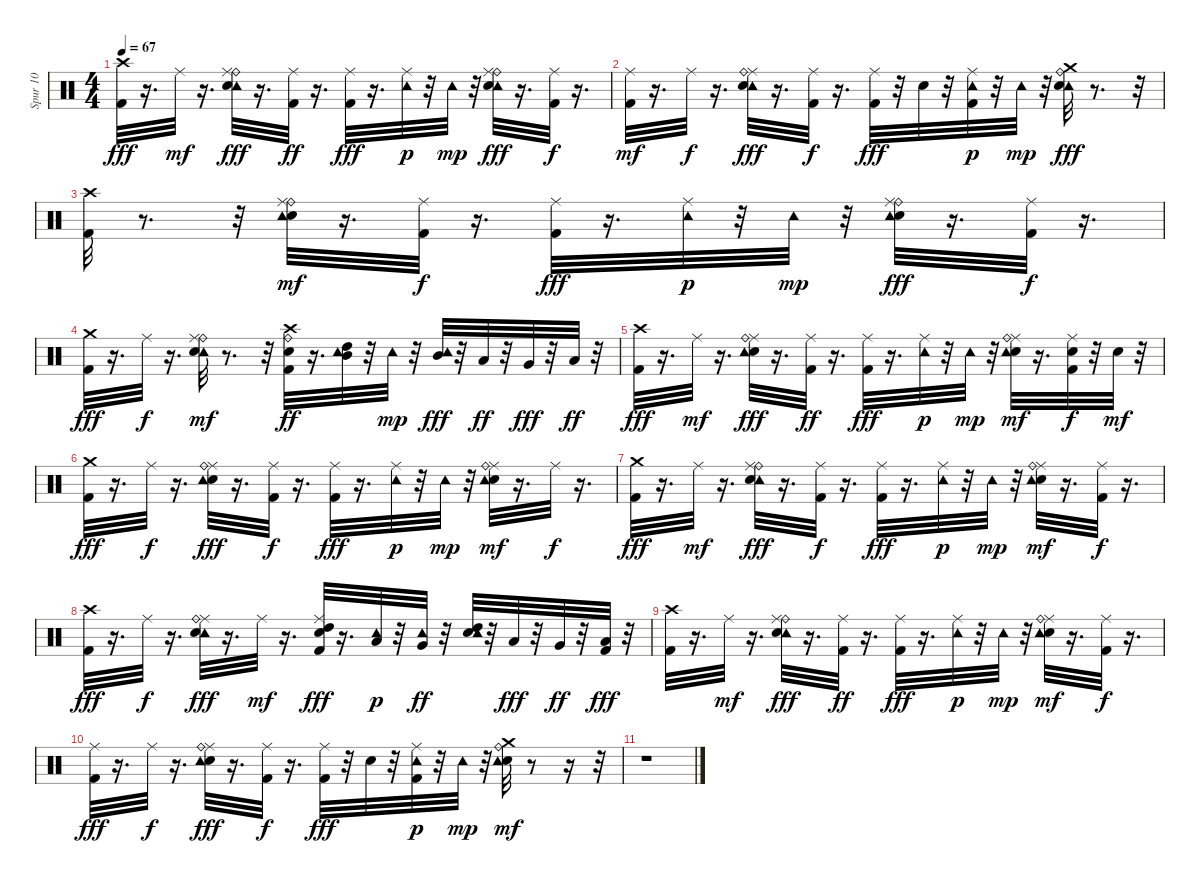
\track ("Spur 10" "Spur 10") {instrument percussion}
\staff {score}
\articulation defaults
\ts (4 4)
\tempo 67
\clef neutral
\ks c
("Crash high (hit)" "Kick (hit) 2").32{dy fff} r.16{d} "Ride (middle)".32{dy mf} r.16{d} ("Ride (bell)" "Tambourine (hit)" "Ride (middle)" "Snare (hit) 2").32{dy fff} r.16{d} ("Kick (hit) 2" "Ride (middle)").32{dy ff} r.16{d} ("Kick (hit) 2" "Ride (middle)").32{dy fff} r.16{d} ("Ride (middle)" "Tambourine (hit)").32{dy p} r.32 "Tambourine (hit)".32{dy mp} r.32 ("Tambourine (hit)" "Ride (bell)" "Ride (middle)" "Snare (hit) 2").32{dy fff} r.16{d} ("Kick (hit) 2" "Ride (middle)").32{dy f} r.16{d} |
("Kick (hit) 2" "Ride (middle)").32{dy mf} r.16{d} "Ride (middle)".32{dy f} r.16{d} ("Ride (middle)" "Ride (bell)" "Tambourine (hit)" "Snare (hit) 2").32{dy fff} r.16{d} ("Ride (middle)" "Kick (hit) 2").32{dy f} r.16{d} ("Ride (middle)" "Kick (hit) 2").32{dy fff} r.32 "Snare (hit) 2".32 r.32 ("Kick (hit) 2" "Ride (middle)" "Tambourine (hit)").32{dy p} r.32 "Tambourine (hit)".32{dy mp} r.32 ("Crash medium (hit)" "Tambourine (hit)" "Ride (bell)" "Snare (hit) 2").32{dy fff} r.8{d} r.32 |
("Kick (hit) 2" "Crash high (hit)").32 r.8{d} r.32 ("Snare (hit) 2" "Ride (bell)" "Ride (middle)" "Tambourine (hit)").32{dy mf} r.16{d} ("Ride (middle)" "Kick (hit) 2").32{dy f} r.16{d} ("Ride (middle)" "Kick (hit) 2").32{dy fff} r.16{d} ("Tambourine (hit)" "Ride (middle)").32{dy p} r.32 "Tambourine (hit)".32{dy mp} r.32 ("Ride (bell)" "Snare (hit) 2" "Tambourine (hit)" "Ride (middle)").32{dy fff} r.16{d} ("Kick (hit) 2" "Ride (middle)").32{dy f} r.16{d} |
("Kick (hit) 2" "Crash medium (hit)").32{dy fff} r.16{d} "Ride (middle)".32{dy f} r.16{d} ("Tambourine (hit)" "Ride (bell)" "Snare (hit) 2" "Ride (middle)").32{dy mf} r.8{d} r.32 ("Kick (hit) 2" "Snare (hit) 2" "Crash high (hit)" "Ride (bell)").32{dy ff} r.16{d} ("Mid Tom (hit)" "Tambourine (hit)" "High Tom (hit)").32 r.32 "Tambourine (hit)".32{dy mp} r.32 ("Tambourine (hit)" "Mid Tom (hit)").32{dy fff} r.32 "Low Tom (hit)".32{dy ff} r.32 "Very Low Tom (hit)".32{dy fff} r.32 "Low Floor Tom (hit)".32{dy ff} r.32 |
("Crash high (hit)" "Kick (hit) 2").32{dy fff} r.16{d} "Ride (middle)".32{dy mf} r.16{d} ("Snare (hit) 2" "Ride (middle)" "Ride (bell)" "Tambourine (hit)").32{dy fff} r.16{d} ("Ride (middle)" "Kick (hit) 2").32{dy ff} r.16{d} ("Ride (middle)" "Kick (hit) 2").32{dy fff} r.16{d} ("Ride (middle)" "Tambourine (hit)").32{dy p} r.32 "Tambourine (hit)".32{dy mp} r.32 ("Snare (hit) 2" "Ride (middle)" "Tambourine (hit)" "Ride (bell)").32{dy mf} r.16{d} ("Snare (hit) 2" "Kick (hit) 2" "Ride (middle)").32{dy f} r.32 "Snare (hit) 2".32{dy mf} r.32 |
("Crash medium (hit)" "Kick (hit) 2").32{dy fff} r.16{d} "Ride (middle)".32{dy f} r.16{d} ("Snare (hit) 2" "Ride (middle)" "Tambourine (hit)" "Ride (bell)").32{dy fff} r.16{d} ("Ride (middle)" "Kick (hit) 2").32{dy f} r.16{d} ("Kick (hit) 2" "Ride (middle)").32{dy fff} r.16{d} ("Ride (middle)" "Tambourine (hit)").32{dy p} r.32 "Tambourine (hit)".32{dy mp} r.32 ("Snare (hit) 2" "Ride (middle)" "Tambourine (hit)" "Ride (bell)").32{dy mf} r.16{d} "Ride (middle)".32{dy f} r.16{d} |
("Crash medium (hit)" "Kick (hit) 2").32{dy fff} r.16{d} "Ride (middle)".32{dy mf} r.16{d} ("Tambourine (hit)" "Ride (bell)" "Ride (middle)" "Snare (hit) 2").32{dy fff} r.16{d} ("Kick (hit) 2" "Ride (middle)").32{dy f} r.16{d} ("Ride (middle)" "Kick (hit) 2").32{dy fff} r.16{d} ("Ride (middle)" "Tambourine (hit)").32{dy p} r.32 "Tambourine (hit)".32{dy mp} r.32 ("Snare (hit) 2" "Ride (middle)" "Ride (bell)" "Tambourine (hit)").32{dy mf} r.16{d} ("Kick (hit) 2" "Ride (middle)").32{dy f} r.16{d} |
("Kick (hit) 2" "Crash high (hit)").32{dy fff} r.16{d} "Ride (middle)".32{dy f} r.16{d} ("Ride (middle)" "Ride (bell)" "Tambourine (hit)" "Snare (hit) 2").32{dy fff} r.16{d} "Ride (middle)".32{dy mf} r.16{d} ("High Tom (hit)" "Ride (middle)" "Kick (hit) 2" "Snare (hit) 2").32{dy fff} r.16{d} ("Low Tom (hit)" "Tambourine (hit)").32{dy p} r.32 ("Tambourine (hit)" "Very Low Tom (hit)").32{dy ff} r.32 ("Snare (hit) 2" "High Tom (hit)" "Tambourine (hit)").32 r.32 "Low Tom (hit)".32{dy fff} r.32 "Very Low Tom (hit)".32{dy ff} r.32 ("Low Floor Tom (hit)" "Kick (hit) 2").32{dy fff} r.32 |
("Kick (hit) 2" "Crash high (hit)").32 r.16{d} "Ride (middle)".32{dy mf} r.16{d} ("Tambourine (hit)" "Ride (bell)" "Snare (hit) 2" "Ride (middle)").32{dy fff} r.16{d} ("Ride (middle)" "Kick (hit) 2").32{dy ff} r.16{d} ("Ride (middle)" "Kick (hit) 2").32{dy fff} r.16{d} ("Ride (middle)" "Tambourine (hit)").32{dy p} r.32 "Tambourine (hit)".32{dy mp} r.32 ("Snare (hit) 2" "Ride (middle)" "Ride (bell)" "Tambourine (hit)").32{dy mf} r.16{d} ("Ride (middle)" "Kick (hit) 2").32{dy f} r.16{d} |
("Ride (middle)" "Kick (hit) 2").32{dy fff} r.16{d} "Ride (middle)".32{dy f} r.16{d} ("Snare (hit) 2" "Ride (middle)" "Tambourine (hit)" "Ride (bell)").32{dy fff} r.16{d} ("Ride (middle)" "Kick (hit) 2").32{dy f} r.16{d} ("Kick (hit) 2" "Ride (middle)").32{dy fff} r.32 "Snare (hit) 2".32 r.32 ("Kick (hit) 2" "Tambourine (hit)" "Ride (middle)").32{dy p} r.32 "Tambourine (hit)".32{dy mp} r.32 ("Snare (hit) 2" "Crash medium (hit)" "Tambourine (hit)" "Ride (bell)").32{dy mf} r.8 r.16 r.32 |
r.1
